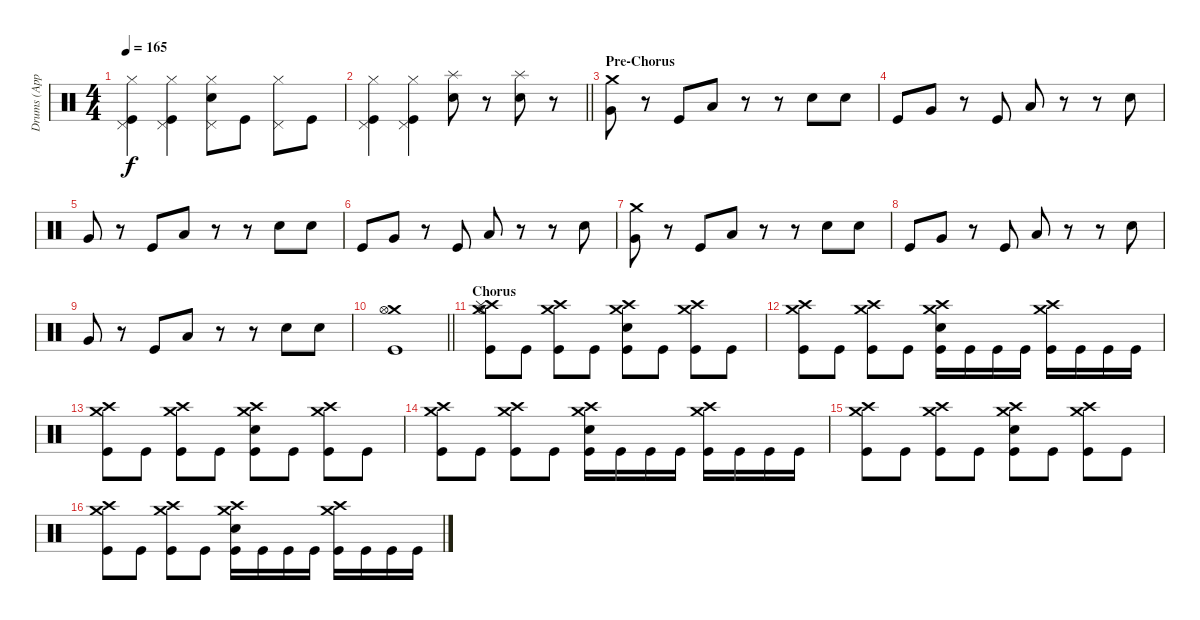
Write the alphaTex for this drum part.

\track ("Drums (Approx.)" "Drums (App") {instrument percussion}
\staff {score}
\articulation defaults
\ts (4 4)
\tempo 165
\clef neutral
\ks c
("Hi-Hat (closed)" "Pedal Hi-Hat (hit)" "Kick (hit)").4{dy f} ("Hi-Hat (closed)" "Pedal Hi-Hat (hit)" "Kick (hit)").4 ("Hi-Hat (closed)" "Pedal Hi-Hat (hit)" "Electric Snare (hit)").8 "Kick (hit)".8 ("Hi-Hat (closed)" "Pedal Hi-Hat (hit)").8 "Kick (hit)".8 |
\barLineRight lightlight
("Hi-Hat (closed)" "Pedal Hi-Hat (hit)" "Kick (hit)").4 ("Hi-Hat (closed)" "Pedal Hi-Hat (hit)" "Kick (hit)").4 ("Splash (hit)" "Electric Snare (hit)").8 r.8 ("Splash (hit)" "Electric Snare (hit)").8 r.8 |
\section ("" "Pre-Chorus")
("Crash medium (hit)" "Very Low Tom (hit)").8 r.8 "Kick (hit)".8 "Low Floor Tom (hit)".8 r.8 r.8 "Electric Snare (hit)".8 "Electric Snare (hit)".8 |
"Kick (hit)".8 "Very Low Tom (hit)".8 r.8 "Kick (hit)".8 "Low Floor Tom (hit)".8 r.8 r.8 "Electric Snare (hit)".8 |
"Very Low Tom (hit)".8 r.8 "Kick (hit)".8 "Low Floor Tom (hit)".8 r.8 r.8 "Electric Snare (hit)".8 "Electric Snare (hit)".8 |
"Kick (hit)".8 "Very Low Tom (hit)".8 r.8 "Kick (hit)".8 "Low Floor Tom (hit)".8 r.8 r.8 "Electric Snare (hit)".8 |
("Crash medium (hit)" "Very Low Tom (hit)").8 r.8 "Kick (hit)".8 "Low Floor Tom (hit)".8 r.8 r.8 "Electric Snare (hit)".8 "Electric Snare (hit)".8 |
"Kick (hit)".8 "Very Low Tom (hit)".8 r.8 "Kick (hit)".8 "Low Floor Tom (hit)".8 r.8 r.8 "Electric Snare (hit)".8 |
"Very Low Tom (hit)".8 r.8 "Kick (hit)".8 "Low Floor Tom (hit)".8 r.8 r.8 "Electric Snare (hit)".8 "Electric Snare (hit)".8 |
\barLineRight lightlight
("Crash medium (hit)" "Hi-Hat (open)" "Kick (hit)").1 |
\section ("" "Chorus")
("Hi-Hat (open)" "Crash medium (hit)" "Crash high (hit)" "Splash (hit)" "Kick (hit)").8 "Kick (hit)".8 ("Crash medium (hit)" "Crash high (hit)" "Kick (hit)").8 "Kick (hit)".8 ("Crash medium (hit)" "Crash high (hit)" "Electric Snare (hit)" "Kick (hit)").8 "Kick (hit)".8 ("Crash medium (hit)" "Crash high (hit)" "Kick (hit)").8 "Kick (hit)".8 |
("Crash medium (hit)" "Crash high (hit)" "Kick (hit)").8 "Kick (hit)".8 ("Crash medium (hit)" "Crash high (hit)" "Kick (hit)").8 "Kick (hit)".8 ("Crash medium (hit)" "Crash high (hit)" "Electric Snare (hit)" "Kick (hit)").16 "Kick (hit)".16 "Kick (hit)".16 "Kick (hit)".16 ("Crash medium (hit)" "Crash high (hit)" "Kick (hit)").16 "Kick (hit)".16 "Kick (hit)".16 "Kick (hit)".16 |
("Crash medium (hit)" "Crash high (hit)" "Kick (hit)").8 "Kick (hit)".8 ("Crash medium (hit)" "Crash high (hit)" "Kick (hit)").8 "Kick (hit)".8 ("Crash medium (hit)" "Crash high (hit)" "Electric Snare (hit)" "Kick (hit)").8 "Kick (hit)".8 ("Crash medium (hit)" "Crash high (hit)" "Kick (hit)").8 "Kick (hit)".8 |
("Crash medium (hit)" "Crash high (hit)" "Kick (hit)").8 "Kick (hit)".8 ("Crash medium (hit)" "Crash high (hit)" "Kick (hit)").8 "Kick (hit)".8 ("Crash medium (hit)" "Crash high (hit)" "Electric Snare (hit)" "Kick (hit)").16 "Kick (hit)".16 "Kick (hit)".16 "Kick (hit)".16 ("Crash medium (hit)" "Crash high (hit)" "Kick (hit)").16 "Kick (hit)".16 "Kick (hit)".16 "Kick (hit)".16 |
("Crash medium (hit)" "Crash high (hit)" "Kick (hit)").8 "Kick (hit)".8 ("Crash medium (hit)" "Crash high (hit)" "Kick (hit)").8 "Kick (hit)".8 ("Crash medium (hit)" "Crash high (hit)" "Electric Snare (hit)" "Kick (hit)").8 "Kick (hit)".8 ("Crash medium (hit)" "Crash high (hit)" "Kick (hit)").8 "Kick (hit)".8 |
("Crash medium (hit)" "Crash high (hit)" "Kick (hit)").8 "Kick (hit)".8 ("Crash medium (hit)" "Crash high (hit)" "Kick (hit)").8 "Kick (hit)".8 ("Crash medium (hit)" "Crash high (hit)" "Electric Snare (hit)" "Kick (hit)").16 "Kick (hit)".16 "Kick (hit)".16 "Kick (hit)".16 ("Crash medium (hit)" "Crash high (hit)" "Kick (hit)").16 "Kick (hit)".16 "Kick (hit)".16 "Kick (hit)".16
